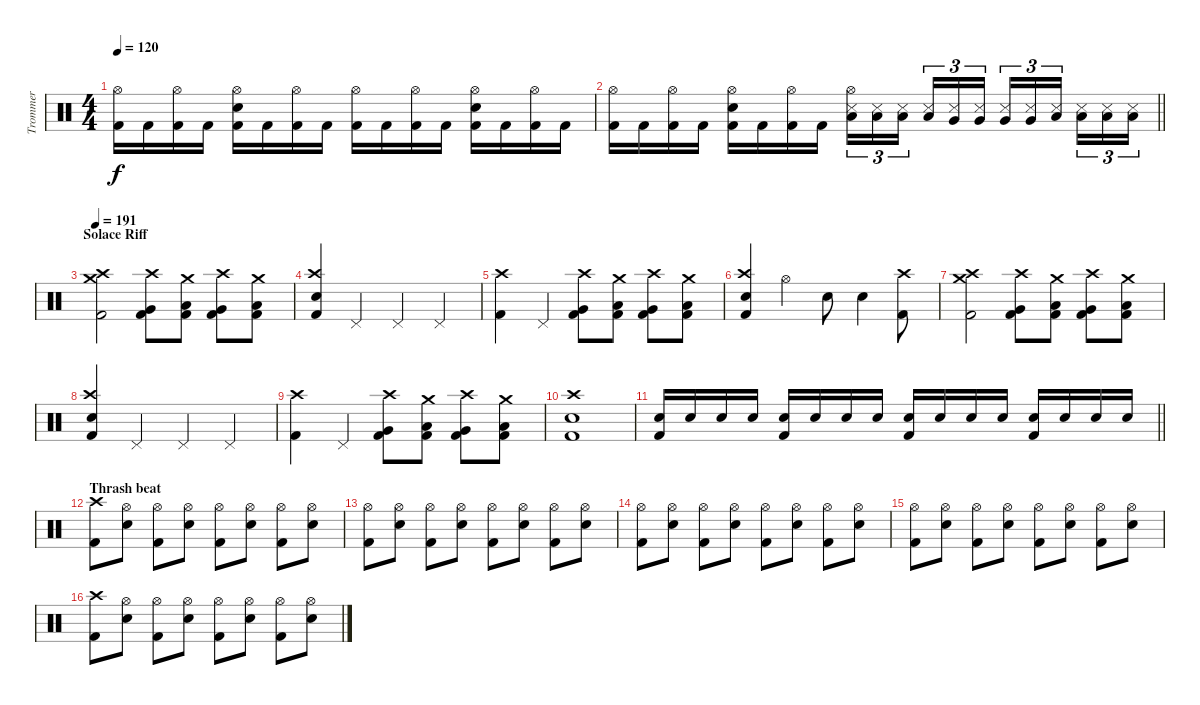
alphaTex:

\track ("Trommer" "Trommer") {instrument percussion}
\staff {score}
\articulation defaults
\ts (4 4)
\tempo 120
\clef neutral
\ks c
("Hi-Hat (open)" "Kick (hit) 2").16{dy f} "Kick (hit) 2".16 ("Hi-Hat (open)" "Kick (hit) 2").16 "Kick (hit) 2".16 ("Hi-Hat (open)" "Electric Snare (hit)" "Kick (hit) 2").16 "Kick (hit) 2".16 ("Hi-Hat (open)" "Kick (hit) 2").16 "Kick (hit) 2".16 ("Hi-Hat (open)" "Kick (hit) 2").16 "Kick (hit) 2".16 ("Hi-Hat (open)" "Kick (hit) 2").16 "Kick (hit) 2".16 ("Hi-Hat (open)" "Electric Snare (hit)" "Kick (hit) 2").16 "Kick (hit) 2".16 ("Hi-Hat (open)" "Kick (hit) 2").16 "Kick (hit) 2".16 |
\barLineRight lightlight
("Hi-Hat (open)" "Kick (hit) 2").16 "Kick (hit) 2".16 ("Hi-Hat (open)" "Kick (hit) 2").16 "Kick (hit) 2".16 ("Hi-Hat (open)" "Electric Snare (hit)" "Kick (hit) 2").16 "Kick (hit) 2".16 ("Hi-Hat (open)" "Kick (hit) 2").16 "Kick (hit) 2".16 ("Hi-Hat (open)" "Snare (side stick) 3" "Low Tom (hit)").16{tu (3 2)} ("Snare (side stick) 3" "Low Tom (hit)").16{tu (3 2)} ("Snare (side stick) 3" "Low Tom (hit)").16{tu (3 2) beam splitsecondary} ("Snare (side stick) 3" "Low Tom (hit)").16{tu (3 2)} ("Snare (side stick) 3" "Very Low Tom (hit)").16{tu (3 2)} ("Snare (side stick) 3" "Very Low Tom (hit)").16{tu (3 2)} ("Snare (side stick) 3" "Very Low Tom (hit)").16{tu (3 2)} ("Snare (side stick) 3" "Very Low Tom (hit)").16{tu (3 2)} ("Snare (side stick) 3" "Low Floor Tom (hit)").16{tu (3 2) beam splitsecondary} ("Snare (side stick) 3" "Low Floor Tom (hit)").16{tu (3 2)} ("Snare (side stick) 3" "Low Floor Tom (hit)").16{tu (3 2)} ("Snare (side stick) 3" "Low Floor Tom (hit)").16{tu (3 2)} |
\section ("" "Solace Riff")
\tempo 191
("Crash medium (hit)" "Crash high (hit)" "Kick (hit) 2").2 ("Crash high (hit)" "Very Low Tom (hit)" "Kick (hit) 2").8 ("Crash medium (hit)" "Low Floor Tom (hit)" "Kick (hit) 2").8 ("Crash high (hit)" "Very Low Tom (hit)" "Kick (hit) 2").8 ("Crash medium (hit)" "Low Floor Tom (hit)" "Kick (hit) 2").8 |
("Crash high (hit)" "Snare (hit) 2" "Kick (hit) 2").4 "Pedal Hi-Hat (hit)".4 "Pedal Hi-Hat (hit)".4 "Pedal Hi-Hat (hit)".4 |
("Crash high (hit)" "Kick (hit) 2").4 "Pedal Hi-Hat (hit)".4 ("Crash high (hit)" "Very Low Tom (hit)" "Kick (hit) 2").8 ("Crash medium (hit)" "Low Floor Tom (hit)" "Kick (hit) 2").8 ("Crash high (hit)" "Very Low Tom (hit)" "Kick (hit) 2").8 ("Crash medium (hit)" "Low Floor Tom (hit)" "Kick (hit) 2").8 |
("Crash high (hit)" "Snare (hit) 2" "Kick (hit) 2").4 "Hi-Hat (open)".4 "Snare (hit) 2".8 "Snare (hit) 2".4 ("Crash high (hit)" "Kick (hit) 2").8 |
("Crash medium (hit)" "Crash high (hit)" "Kick (hit) 2").2 ("Crash high (hit)" "Very Low Tom (hit)" "Kick (hit) 2").8 ("Crash medium (hit)" "Low Floor Tom (hit)" "Kick (hit) 2").8 ("Crash high (hit)" "Very Low Tom (hit)" "Kick (hit) 2").8 ("Crash medium (hit)" "Low Floor Tom (hit)" "Kick (hit) 2").8 |
("Crash high (hit)" "Snare (hit) 2" "Kick (hit) 2").4 "Pedal Hi-Hat (hit)".4 "Pedal Hi-Hat (hit)".4 "Pedal Hi-Hat (hit)".4 |
("Crash high (hit)" "Kick (hit) 2").4 "Pedal Hi-Hat (hit)".4 ("Crash high (hit)" "Very Low Tom (hit)" "Kick (hit) 2").8 ("Crash medium (hit)" "Low Floor Tom (hit)" "Kick (hit) 2").8 ("Crash high (hit)" "Very Low Tom (hit)" "Kick (hit) 2").8 ("Crash medium (hit)" "Low Floor Tom (hit)" "Kick (hit) 2").8 |
("Crash high (hit)" "Snare (hit) 2" "Kick (hit) 2").1 |
\barLineRight lightlight
("Snare (hit) 2" "Kick (hit) 2").16 "Snare (hit) 2".16 "Snare (hit) 2".16 "Snare (hit) 2".16 ("Snare (hit) 2" "Kick (hit) 2").16 "Snare (hit) 2".16 "Snare (hit) 2".16 "Snare (hit) 2".16 ("Snare (hit) 2" "Kick (hit) 2").16 "Snare (hit) 2".16 "Snare (hit) 2".16 "Snare (hit) 2".16 ("Snare (hit) 2" "Kick (hit) 2").16 "Snare (hit) 2".16 "Snare (hit) 2".16 "Snare (hit) 2".16 |
\section ("" "Thrash beat")
("Crash high (hit)" "Kick (hit) 2").8 ("Hi-Hat (open)" "Snare (hit) 2").8 ("Hi-Hat (open)" "Kick (hit) 2").8 ("Hi-Hat (open)" "Snare (hit) 2").8 ("Hi-Hat (open)" "Kick (hit) 2").8 ("Hi-Hat (open)" "Snare (hit) 2").8 ("Hi-Hat (open)" "Kick (hit) 2").8 ("Hi-Hat (open)" "Snare (hit) 2").8 |
("Hi-Hat (open)" "Kick (hit) 2").8 ("Hi-Hat (open)" "Snare (hit) 2").8 ("Hi-Hat (open)" "Kick (hit) 2").8 ("Hi-Hat (open)" "Snare (hit) 2").8 ("Hi-Hat (open)" "Kick (hit) 2").8 ("Hi-Hat (open)" "Snare (hit) 2").8 ("Hi-Hat (open)" "Kick (hit) 2").8 ("Hi-Hat (open)" "Snare (hit) 2").8 |
("Hi-Hat (open)" "Kick (hit) 2").8 ("Hi-Hat (open)" "Snare (hit) 2").8 ("Hi-Hat (open)" "Kick (hit) 2").8 ("Hi-Hat (open)" "Snare (hit) 2").8 ("Hi-Hat (open)" "Kick (hit) 2").8 ("Hi-Hat (open)" "Snare (hit) 2").8 ("Hi-Hat (open)" "Kick (hit) 2").8 ("Hi-Hat (open)" "Snare (hit) 2").8 |
("Hi-Hat (open)" "Kick (hit) 2").8 ("Hi-Hat (open)" "Snare (hit) 2").8 ("Hi-Hat (open)" "Kick (hit) 2").8 ("Hi-Hat (open)" "Snare (hit) 2").8 ("Hi-Hat (open)" "Kick (hit) 2").8 ("Hi-Hat (open)" "Snare (hit) 2").8 ("Hi-Hat (open)" "Kick (hit) 2").8 ("Hi-Hat (open)" "Snare (hit) 2").8 |
("Crash high (hit)" "Kick (hit) 2").8 ("Hi-Hat (open)" "Snare (hit) 2").8 ("Hi-Hat (open)" "Kick (hit) 2").8 ("Hi-Hat (open)" "Snare (hit) 2").8 ("Hi-Hat (open)" "Kick (hit) 2").8 ("Hi-Hat (open)" "Snare (hit) 2").8 ("Hi-Hat (open)" "Kick (hit) 2").8 ("Hi-Hat (open)" "Snare (hit) 2").8
